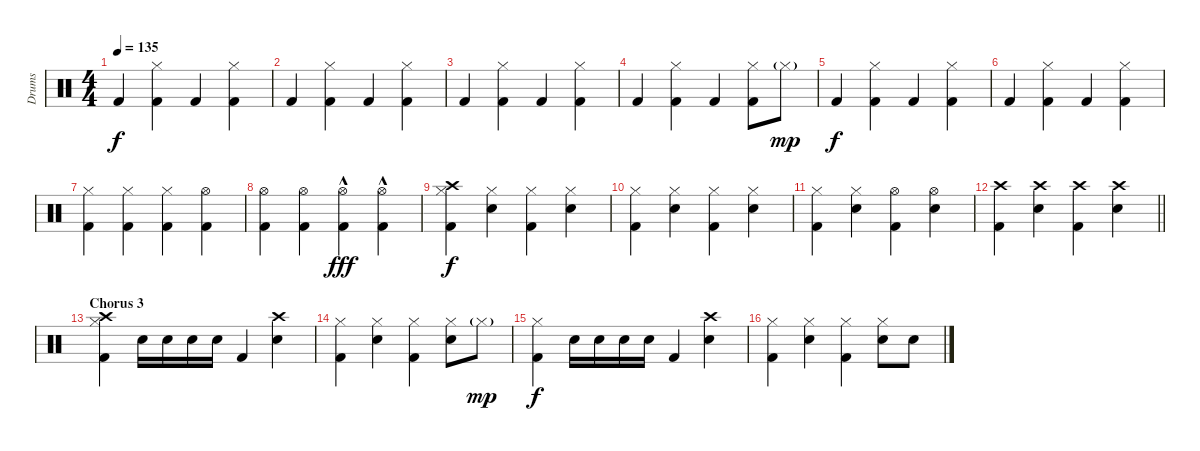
\track ("Drums" "Drums") {instrument percussion}
\staff {score}
\articulation defaults
\ts (4 4)
\tempo 135
\clef neutral
\ks c "Kick (hit) 2".4{dy f}
("Hi-Hat (closed)" "Kick (hit) 2").4 "Kick (hit) 2".4 ("Hi-Hat (closed)" "Kick (hit) 2").4 |
"Kick (hit) 2".4 ("Hi-Hat (closed)" "Kick (hit) 2").4 "Kick (hit) 2".4 ("Hi-Hat (closed)" "Kick (hit) 2").4 |
"Kick (hit) 2".4 ("Hi-Hat (closed)" "Kick (hit) 2").4 "Kick (hit) 2".4 ("Hi-Hat (closed)" "Kick (hit) 2").4 |
"Kick (hit) 2".4 ("Hi-Hat (closed)" "Kick (hit) 2").4 "Kick (hit) 2".4 ("Hi-Hat (closed)" "Kick (hit) 2").8 "Hi-Hat (closed)"{g}.8{dy mp} |
"Kick (hit) 2".4{dy f} ("Hi-Hat (closed)" "Kick (hit) 2").4 "Kick (hit) 2".4 ("Hi-Hat (closed)" "Kick (hit) 2").4 |
"Kick (hit) 2".4 ("Hi-Hat (closed)" "Kick (hit) 2").4 "Kick (hit) 2".4 ("Hi-Hat (closed)" "Kick (hit) 2").4 |
("Hi-Hat (closed)" "Kick (hit) 2").4 ("Hi-Hat (closed)" "Kick (hit) 2").4 ("Hi-Hat (closed)" "Kick (hit) 2").4 ("Hi-Hat (open)" "Kick (hit) 2").4 |
("Hi-Hat (open)" "Kick (hit) 2").4 ("Hi-Hat (open)" "Kick (hit) 2").4 ("Hi-Hat (open)"{hac} "Kick (hit) 2").4{dy fff} ("Hi-Hat (open)"{hac} "Kick (hit) 2").4 |
("Hi-Hat (closed)" "Crash high (hit)" "Kick (hit) 2").4{dy f} ("Hi-Hat (closed)" "Electric Snare (hit)").4 ("Hi-Hat (closed)" "Kick (hit) 2").4 ("Hi-Hat (closed)" "Electric Snare (hit)").4 |
("Hi-Hat (closed)" "Kick (hit) 2").4 ("Hi-Hat (closed)" "Electric Snare (hit)").4 ("Hi-Hat (closed)" "Kick (hit) 2").4 ("Hi-Hat (closed)" "Electric Snare (hit)").4 |
("Hi-Hat (closed)" "Kick (hit) 2").4 ("Hi-Hat (closed)" "Electric Snare (hit)").4 ("Hi-Hat (open)" "Kick (hit) 2").4 ("Hi-Hat (open)" "Electric Snare (hit)").4 |
\barLineRight lightlight
("Crash high (hit)" "Kick (hit) 2").4 ("Crash high (hit)" "Electric Snare (hit)").4 ("Crash high (hit)" "Kick (hit) 2").4 ("Crash high (hit)" "Electric Snare (hit)").4 |
\section ("" "Chorus 3")
("Hi-Hat (closed)" "Crash high (hit)" "Kick (hit) 2").4 "Electric Snare (hit)".16 "Electric Snare (hit)".16 "Electric Snare (hit)".16 "Electric Snare (hit)".16 "Kick (hit) 2".4 ("Crash high (hit)" "Electric Snare (hit)").4 |
("Hi-Hat (closed)" "Kick (hit) 2").4 ("Hi-Hat (closed)" "Electric Snare (hit)").4 ("Hi-Hat (closed)" "Kick (hit) 2").4 ("Hi-Hat (closed)" "Electric Snare (hit)").8 "Hi-Hat (closed)"{g}.8{dy mp} |
("Hi-Hat (closed)" "Kick (hit) 2").4{dy f} "Electric Snare (hit)".16 "Electric Snare (hit)".16 "Electric Snare (hit)".16 "Electric Snare (hit)".16 "Kick (hit) 2".4 ("Crash high (hit)" "Electric Snare (hit)").4 |
("Hi-Hat (closed)" "Kick (hit) 2").4 ("Hi-Hat (closed)" "Electric Snare (hit)").4 ("Hi-Hat (closed)" "Kick (hit) 2").4 ("Hi-Hat (closed)" "Electric Snare (hit)").8 "Snare (hit)".8
